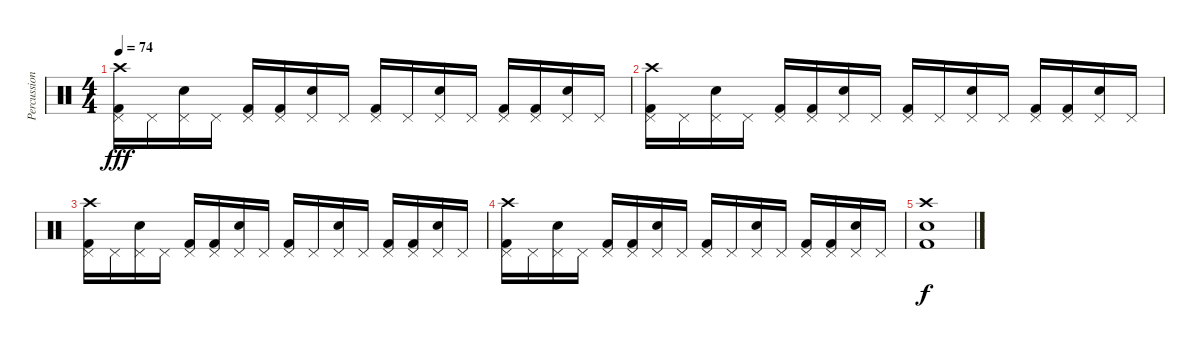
\track ("Percussion" "Percussion") {instrument percussion}
\staff {score}
\articulation defaults
\ts (4 4)
\tempo 74
\clef neutral
\ks c
("Crash high (hit)" "Pedal Hi-Hat (hit)" "Kick (hit) 2").16{dy fff} "Pedal Hi-Hat (hit)".16 ("Pedal Hi-Hat (hit)" "Electric Snare (hit)").16 "Pedal Hi-Hat (hit)".16 ("Pedal Hi-Hat (hit)" "Kick (hit) 2").16 ("Pedal Hi-Hat (hit)" "Kick (hit) 2").16 ("Pedal Hi-Hat (hit)" "Electric Snare (hit)").16 "Pedal Hi-Hat (hit)".16 ("Pedal Hi-Hat (hit)" "Kick (hit) 2").16 "Pedal Hi-Hat (hit)".16 ("Pedal Hi-Hat (hit)" "Electric Snare (hit)").16 "Pedal Hi-Hat (hit)".16 ("Pedal Hi-Hat (hit)" "Kick (hit) 2").16 ("Pedal Hi-Hat (hit)" "Kick (hit) 2").16 ("Pedal Hi-Hat (hit)" "Electric Snare (hit)").16 "Pedal Hi-Hat (hit)".16 |
("Crash high (hit)" "Pedal Hi-Hat (hit)" "Kick (hit) 2").16 "Pedal Hi-Hat (hit)".16 ("Pedal Hi-Hat (hit)" "Electric Snare (hit)").16 "Pedal Hi-Hat (hit)".16 ("Pedal Hi-Hat (hit)" "Kick (hit) 2").16 ("Pedal Hi-Hat (hit)" "Kick (hit) 2").16 ("Pedal Hi-Hat (hit)" "Electric Snare (hit)").16 "Pedal Hi-Hat (hit)".16 ("Pedal Hi-Hat (hit)" "Kick (hit) 2").16 "Pedal Hi-Hat (hit)".16 ("Pedal Hi-Hat (hit)" "Electric Snare (hit)").16 "Pedal Hi-Hat (hit)".16 ("Pedal Hi-Hat (hit)" "Kick (hit) 2").16 ("Pedal Hi-Hat (hit)" "Kick (hit) 2").16 ("Pedal Hi-Hat (hit)" "Electric Snare (hit)").16 "Pedal Hi-Hat (hit)".16 |
("Crash high (hit)" "Pedal Hi-Hat (hit)" "Kick (hit) 2").16 "Pedal Hi-Hat (hit)".16 ("Pedal Hi-Hat (hit)" "Electric Snare (hit)").16 "Pedal Hi-Hat (hit)".16 ("Pedal Hi-Hat (hit)" "Kick (hit) 2").16 ("Pedal Hi-Hat (hit)" "Kick (hit) 2").16 ("Pedal Hi-Hat (hit)" "Electric Snare (hit)").16 "Pedal Hi-Hat (hit)".16 ("Pedal Hi-Hat (hit)" "Kick (hit) 2").16 "Pedal Hi-Hat (hit)".16 ("Pedal Hi-Hat (hit)" "Electric Snare (hit)").16 "Pedal Hi-Hat (hit)".16 ("Pedal Hi-Hat (hit)" "Kick (hit) 2").16 ("Pedal Hi-Hat (hit)" "Kick (hit) 2").16 ("Pedal Hi-Hat (hit)" "Electric Snare (hit)").16 "Pedal Hi-Hat (hit)".16 |
("Crash high (hit)" "Pedal Hi-Hat (hit)" "Kick (hit) 2").16 "Pedal Hi-Hat (hit)".16 ("Pedal Hi-Hat (hit)" "Electric Snare (hit)").16 "Pedal Hi-Hat (hit)".16 ("Pedal Hi-Hat (hit)" "Kick (hit) 2").16 ("Pedal Hi-Hat (hit)" "Kick (hit) 2").16 ("Pedal Hi-Hat (hit)" "Electric Snare (hit)").16 "Pedal Hi-Hat (hit)".16 ("Pedal Hi-Hat (hit)" "Kick (hit) 2").16 "Pedal Hi-Hat (hit)".16 ("Pedal Hi-Hat (hit)" "Electric Snare (hit)").16 "Pedal Hi-Hat (hit)".16 ("Pedal Hi-Hat (hit)" "Kick (hit) 2").16 ("Pedal Hi-Hat (hit)" "Kick (hit) 2").16 ("Pedal Hi-Hat (hit)" "Electric Snare (hit)").16 "Pedal Hi-Hat (hit)".16 |
("Crash high (hit)" "Electric Snare (hit)" "Kick (hit) 2").1{dy f}
